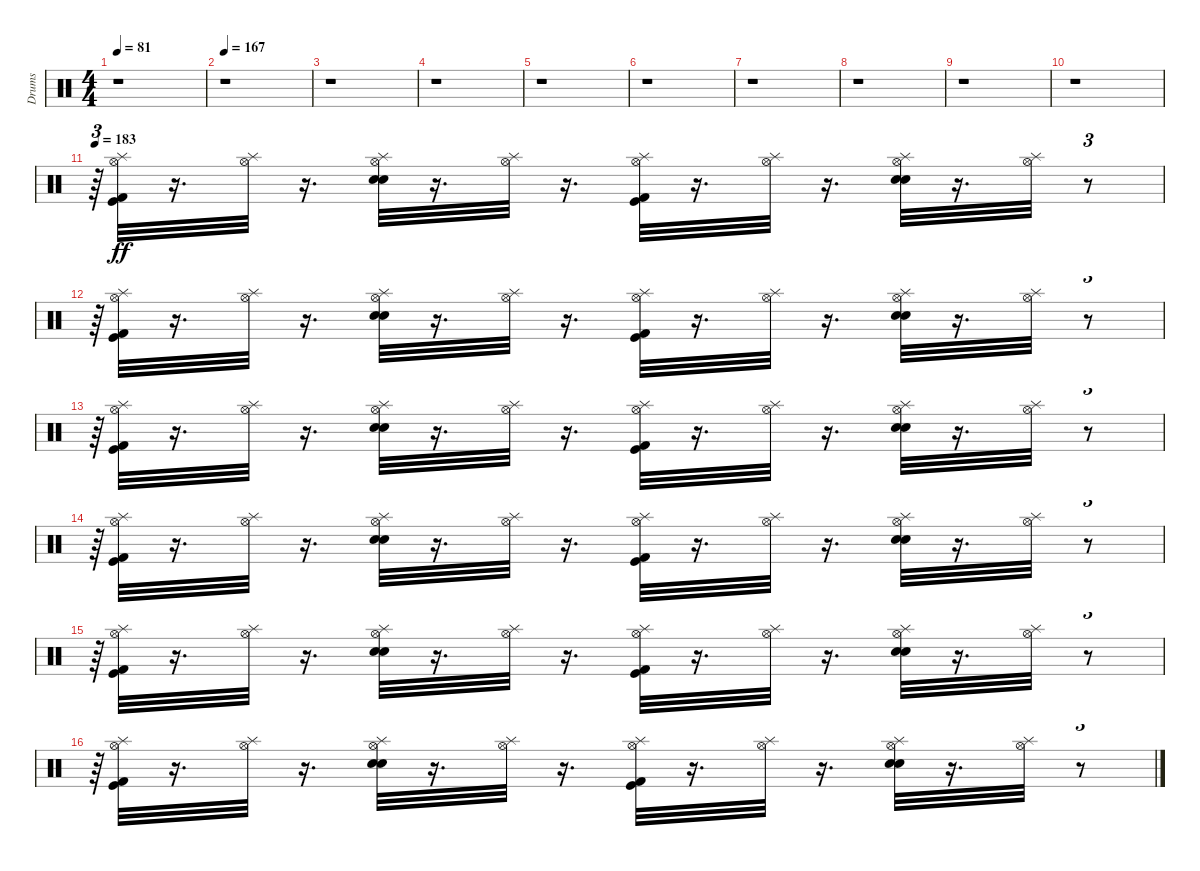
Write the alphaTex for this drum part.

\track ("Drums" "Drums") {instrument percussion}
\staff {score}
\articulation defaults
\ts (4 4)
\tempo 81
\clef neutral
\ks c
r.1{dy ff} |
\tempo 167
r.1 |
r.1 |
r.1 |
r.1 |
r.1 |
r.1 |
r.1 |
r.1 |
r.1 |
\tempo 183
r.64{tu (3 2)} ("Kick (hit)" "Splash (hit)" "Hi-Hat (open)" "Kick (hit) 2").32{volume 5} r.16{d} ("Hi-Hat (open)" "Splash (hit)").32 r.16{d} ("Snare (hit) 2" "Splash (hit)" "Electric Snare (hit)" "Hi-Hat (open)").32{volume 5} r.16{d} ("Splash (hit)" "Hi-Hat (open)").32{volume 6} r.16{d} ("Hi-Hat (open)" "Kick (hit)" "Splash (hit)" "Kick (hit) 2").32{volume 6} r.16{d} ("Splash (hit)" "Hi-Hat (open)").32{volume 6} r.16{d} ("Electric Snare (hit)" "Hi-Hat (open)" "Snare (hit) 2" "Splash (hit)").32{volume 7} r.16{d} ("Splash (hit)" "Hi-Hat (open)").32{volume 7} r.8{tu (3 2)} |
r.64{tu (3 2)} ("Hi-Hat (open)" "Splash (hit)" "Kick (hit) 2" "Kick (hit)").32{volume 8} r.16{d} ("Hi-Hat (open)" "Splash (hit)").32{volume 8} r.16{d} ("Snare (hit) 2" "Hi-Hat (open)" "Electric Snare (hit)" "Splash (hit)").32{volume 8} r.16{d} ("Splash (hit)" "Hi-Hat (open)").32{volume 8} r.16{d} ("Splash (hit)" "Hi-Hat (open)" "Kick (hit) 2" "Kick (hit)").32{volume 8} r.16{d} ("Splash (hit)" "Hi-Hat (open)").32{volume 8} r.16{d} ("Splash (hit)" "Snare (hit) 2" "Hi-Hat (open)" "Electric Snare (hit)").32{volume 9} r.16{d} ("Hi-Hat (open)" "Splash (hit)").32{volume 9} r.8{tu (3 2)} |
r.64{tu (3 2)} ("Hi-Hat (open)" "Kick (hit)" "Splash (hit)" "Kick (hit) 2").32{volume 9} r.16{d} ("Hi-Hat (open)" "Splash (hit)").32 r.16{d} ("Splash (hit)" "Snare (hit) 2" "Electric Snare (hit)" "Hi-Hat (open)").32{volume 9} r.16{d} ("Hi-Hat (open)" "Splash (hit)").32{volume 9} r.16{d} ("Kick (hit)" "Kick (hit) 2" "Hi-Hat (open)" "Splash (hit)").32{volume 9} r.16{d} ("Splash (hit)" "Hi-Hat (open)").32{volume 10} r.16{d} ("Splash (hit)" "Electric Snare (hit)" "Hi-Hat (open)" "Snare (hit) 2").32{volume 10} r.16{d} ("Hi-Hat (open)" "Splash (hit)").32 r.8{tu (3 2)} |
r.64{tu (3 2)} ("Kick (hit)" "Kick (hit) 2" "Hi-Hat (open)" "Splash (hit)").32{volume 10} r.16{d} ("Splash (hit)" "Hi-Hat (open)").32{volume 10} r.16{d} ("Splash (hit)" "Electric Snare (hit)" "Snare (hit) 2" "Hi-Hat (open)").32{volume 10} r.16{d} ("Hi-Hat (open)" "Splash (hit)").32{volume 10} r.16{d} ("Kick (hit)" "Hi-Hat (open)" "Kick (hit) 2" "Splash (hit)").32{volume 10} r.16{d} ("Hi-Hat (open)" "Splash (hit)").32{volume 10} r.16{d} ("Hi-Hat (open)" "Electric Snare (hit)" "Snare (hit) 2" "Splash (hit)").32 r.16{d} ("Hi-Hat (open)" "Splash (hit)").32 r.8{tu (3 2)} |
r.64{tu (3 2)} ("Kick (hit)" "Hi-Hat (open)" "Kick (hit) 2" "Splash (hit)").32{volume 11} r.16{d} ("Splash (hit)" "Hi-Hat (open)").32 r.16{d} ("Electric Snare (hit)" "Snare (hit) 2" "Splash (hit)" "Hi-Hat (open)").32 r.16{d} ("Hi-Hat (open)" "Splash (hit)").32{volume 11} r.16{d} ("Kick (hit)" "Kick (hit) 2" "Splash (hit)" "Hi-Hat (open)").32 r.16{d} ("Hi-Hat (open)" "Splash (hit)").32 r.16{d} ("Electric Snare (hit)" "Splash (hit)" "Hi-Hat (open)" "Snare (hit) 2").32 r.16{d} ("Hi-Hat (open)" "Splash (hit)").32 r.8{tu (3 2)} |
r.64{tu (3 2)} ("Kick (hit)" "Hi-Hat (open)" "Kick (hit) 2" "Splash (hit)").32 r.16{d} ("Hi-Hat (open)" "Splash (hit)").32 r.16{d} ("Hi-Hat (open)" "Splash (hit)" "Electric Snare (hit)" "Snare (hit) 2").32 r.16{d} ("Splash (hit)" "Hi-Hat (open)").32 r.16{d} ("Kick (hit)" "Splash (hit)" "Hi-Hat (open)" "Kick (hit) 2").32 r.16{d} ("Hi-Hat (open)" "Splash (hit)").32 r.16{d} ("Electric Snare (hit)" "Snare (hit) 2" "Hi-Hat (open)" "Splash (hit)").32 r.16{d} ("Hi-Hat (open)" "Splash (hit)").32 r.8{tu (3 2)}
